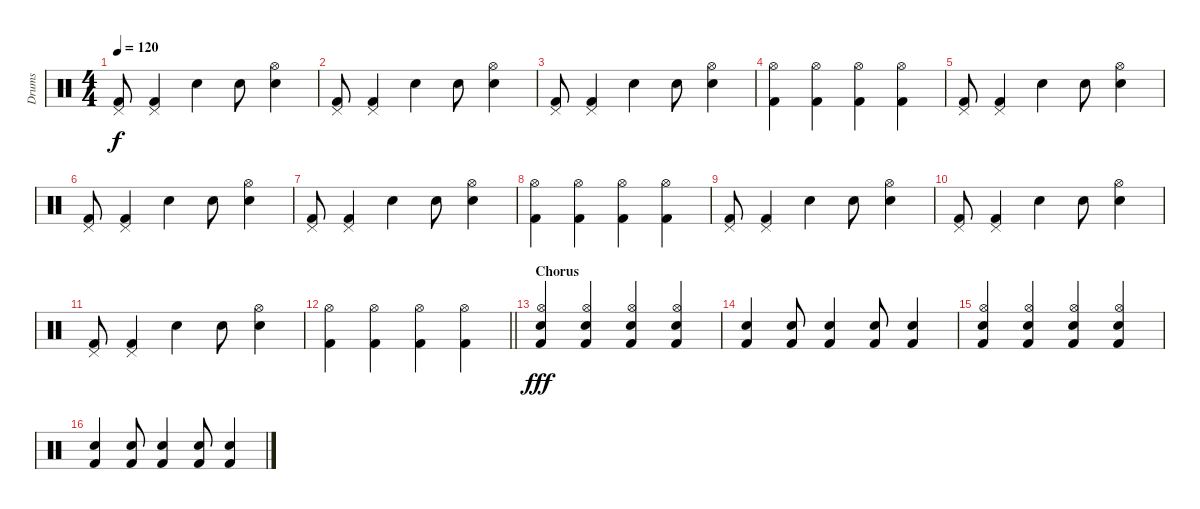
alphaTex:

\track ("Drums" "Drums") {instrument percussion}
\staff {score}
\articulation defaults
\ts (4 4)
\tempo 120
\clef neutral
\ks c
("Pedal Hi-Hat (hit)" "Kick (hit) 2").8{dy f} ("Pedal Hi-Hat (hit)" "Kick (hit) 2").4 "Electric Snare (hit)".4 "Electric Snare (hit)".8 ("Hi-Hat (open)" "Snare (hit) 2").4 |
("Pedal Hi-Hat (hit)" "Kick (hit) 2").8 ("Pedal Hi-Hat (hit)" "Kick (hit) 2").4 "Electric Snare (hit)".4 "Electric Snare (hit)".8 ("Hi-Hat (open)" "Snare (hit) 2").4 |
("Pedal Hi-Hat (hit)" "Kick (hit) 2").8 ("Pedal Hi-Hat (hit)" "Kick (hit) 2").4 "Electric Snare (hit)".4 "Electric Snare (hit)".8 ("Hi-Hat (open)" "Snare (hit) 2").4 |
("Hi-Hat (open)" "Kick (hit) 2").4 ("Hi-Hat (open)" "Kick (hit) 2").4 ("Hi-Hat (open)" "Kick (hit) 2").4 ("Hi-Hat (open)" "Kick (hit) 2").4 |
("Pedal Hi-Hat (hit)" "Kick (hit) 2").8 ("Pedal Hi-Hat (hit)" "Kick (hit) 2").4 "Electric Snare (hit)".4 "Electric Snare (hit)".8 ("Hi-Hat (open)" "Snare (hit) 2").4 |
("Pedal Hi-Hat (hit)" "Kick (hit) 2").8 ("Pedal Hi-Hat (hit)" "Kick (hit) 2").4 "Electric Snare (hit)".4 "Electric Snare (hit)".8 ("Hi-Hat (open)" "Snare (hit) 2").4 |
("Pedal Hi-Hat (hit)" "Kick (hit) 2").8 ("Pedal Hi-Hat (hit)" "Kick (hit) 2").4 "Electric Snare (hit)".4 "Electric Snare (hit)".8 ("Hi-Hat (open)" "Snare (hit) 2").4 |
("Hi-Hat (open)" "Kick (hit) 2").4 ("Hi-Hat (open)" "Kick (hit) 2").4 ("Hi-Hat (open)" "Kick (hit) 2").4 ("Hi-Hat (open)" "Kick (hit) 2").4 |
("Pedal Hi-Hat (hit)" "Kick (hit) 2").8 ("Pedal Hi-Hat (hit)" "Kick (hit) 2").4 "Electric Snare (hit)".4 "Electric Snare (hit)".8 ("Hi-Hat (open)" "Snare (hit) 2").4 |
("Pedal Hi-Hat (hit)" "Kick (hit) 2").8 ("Pedal Hi-Hat (hit)" "Kick (hit) 2").4 "Electric Snare (hit)".4 "Electric Snare (hit)".8 ("Hi-Hat (open)" "Snare (hit) 2").4 |
("Pedal Hi-Hat (hit)" "Kick (hit) 2").8 ("Pedal Hi-Hat (hit)" "Kick (hit) 2").4 "Electric Snare (hit)".4 "Electric Snare (hit)".8 ("Hi-Hat (open)" "Snare (hit) 2").4 |
\barLineRight lightlight
("Hi-Hat (open)" "Kick (hit) 2").4 ("Hi-Hat (open)" "Kick (hit) 2").4 ("Hi-Hat (open)" "Kick (hit) 2").4 ("Hi-Hat (open)" "Kick (hit) 2").4 |
\section ("" "Chorus")
("Hi-Hat (open)" "Snare (hit) 2" "Kick (hit) 2").4{dy fff} ("Hi-Hat (open)" "Snare (hit) 2" "Kick (hit) 2").4 ("Hi-Hat (open)" "Snare (hit) 2" "Kick (hit) 2").4 ("Hi-Hat (open)" "Snare (hit) 2" "Kick (hit) 2").4 |
("Kick (hit) 2" "Snare (hit) 2").4 ("Kick (hit) 2" "Snare (hit) 2").8 ("Kick (hit) 2" "Snare (hit) 2").4 ("Kick (hit) 2" "Snare (hit) 2").8 ("Kick (hit) 2" "Snare (hit) 2").4 |
("Hi-Hat (open)" "Snare (hit) 2" "Kick (hit) 2").4 ("Hi-Hat (open)" "Snare (hit) 2" "Kick (hit) 2").4 ("Hi-Hat (open)" "Snare (hit) 2" "Kick (hit) 2").4 ("Hi-Hat (open)" "Snare (hit) 2" "Kick (hit) 2").4 |
("Kick (hit) 2" "Snare (hit) 2").4 ("Kick (hit) 2" "Snare (hit) 2").8 ("Kick (hit) 2" "Snare (hit) 2").4 ("Kick (hit) 2" "Snare (hit) 2").8 ("Kick (hit) 2" "Snare (hit) 2").4
